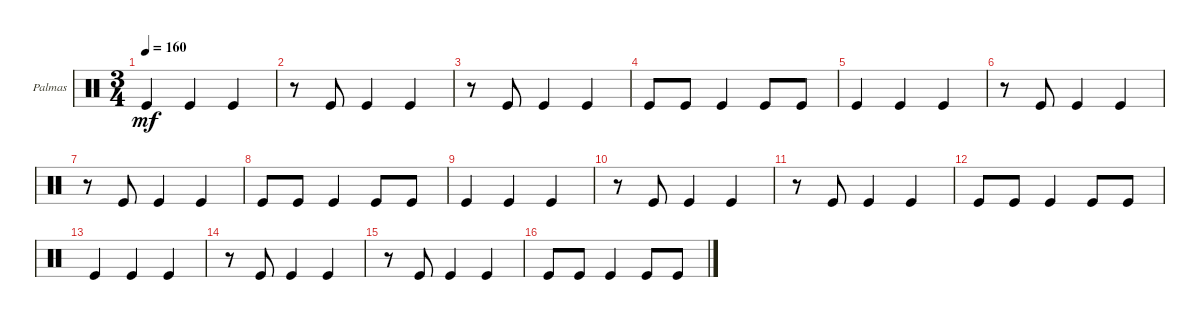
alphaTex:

\defaultSystemsLayout 4
\bracketExtendMode groupsimilarinstruments
\firstSystemTrackNameOrientation horizontal
\otherSystemsTrackNameOrientation horizontal
\track ("Palmas" "Palmas") {instrument percussion}
\staff {score}
\articulation defaults
\ts (3 4)
\tempo 160
\clef neutral
\ks c "Kick (hit)".4{dy mf} "Kick (hit)".4 "Kick (hit)".4
|
r.8 "Kick (hit)".8 "Kick (hit)".4 "Kick (hit)".4 |
r.8 "Kick (hit)".8 "Kick (hit)".4 "Kick (hit)".4 |
"Kick (hit)".8 "Kick (hit)".8 "Kick (hit)".4 "Kick (hit)".8 "Kick (hit)".8 |
"Kick (hit)".4 "Kick (hit)".4 "Kick (hit)".4 |
r.8 "Kick (hit)".8 "Kick (hit)".4 "Kick (hit)".4 |
r.8 "Kick (hit)".8 "Kick (hit)".4 "Kick (hit)".4 |
"Kick (hit)".8 "Kick (hit)".8 "Kick (hit)".4 "Kick (hit)".8 "Kick (hit)".8 |
"Kick (hit)".4 "Kick (hit)".4 "Kick (hit)".4 |
r.8 "Kick (hit)".8 "Kick (hit)".4 "Kick (hit)".4 |
r.8 "Kick (hit)".8 "Kick (hit)".4 "Kick (hit)".4 |
"Kick (hit)".8 "Kick (hit)".8 "Kick (hit)".4 "Kick (hit)".8 "Kick (hit)".8 |
"Kick (hit)".4 "Kick (hit)".4 "Kick (hit)".4 |
r.8 "Kick (hit)".8 "Kick (hit)".4 "Kick (hit)".4 |
r.8 "Kick (hit)".8 "Kick (hit)".4 "Kick (hit)".4 |
"Kick (hit)".8 "Kick (hit)".8 "Kick (hit)".4 "Kick (hit)".8 "Kick (hit)".8
